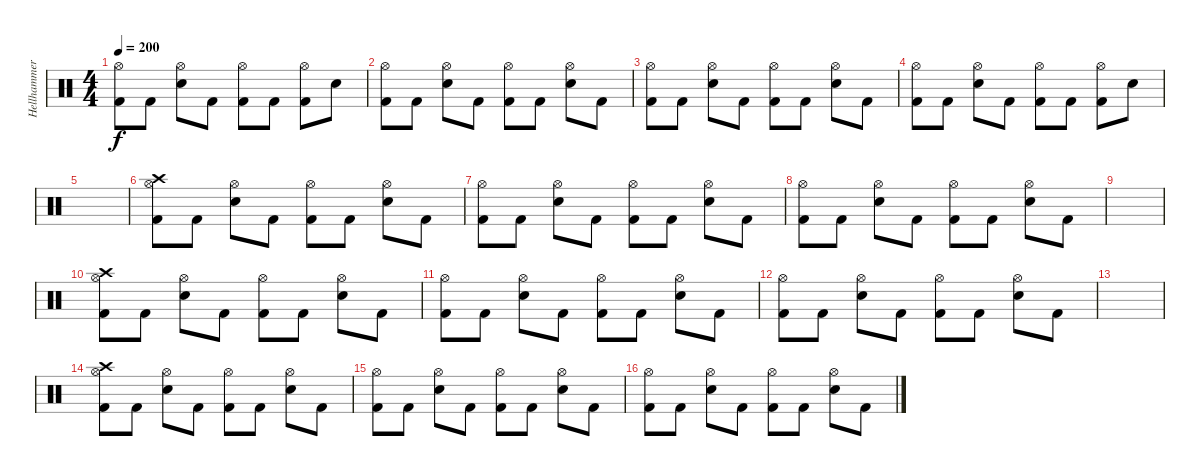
\track ("Hellhammer" "Hellhammer") {instrument percussion}
\staff {score}
\articulation defaults
\ts (4 4)
\tempo 200
\clef neutral
\ks c
("Hi-Hat (open)" "Kick (hit) 2").8{dy f} "Kick (hit) 2".8 ("Hi-Hat (open)" "Electric Snare (hit)").8 "Kick (hit) 2".8 ("Hi-Hat (open)" "Kick (hit) 2").8 "Kick (hit) 2".8 ("Hi-Hat (open)" "Kick (hit) 2").8 "Electric Snare (hit)".8 |
("Hi-Hat (open)" "Kick (hit) 2").8 "Kick (hit) 2".8 ("Hi-Hat (open)" "Electric Snare (hit)").8 "Kick (hit) 2".8 ("Hi-Hat (open)" "Kick (hit) 2").8 "Kick (hit) 2".8 ("Hi-Hat (open)" "Electric Snare (hit)").8 "Kick (hit) 2".8 |
("Hi-Hat (open)" "Kick (hit) 2").8 "Kick (hit) 2".8 ("Hi-Hat (open)" "Electric Snare (hit)").8 "Kick (hit) 2".8 ("Hi-Hat (open)" "Kick (hit) 2").8 "Kick (hit) 2".8 ("Hi-Hat (open)" "Electric Snare (hit)").8 "Kick (hit) 2".8 |
("Hi-Hat (open)" "Kick (hit) 2").8 "Kick (hit) 2".8 ("Hi-Hat (open)" "Electric Snare (hit)").8 "Kick (hit) 2".8 ("Hi-Hat (open)" "Kick (hit) 2").8 "Kick (hit) 2".8 ("Hi-Hat (open)" "Kick (hit) 2").8 "Electric Snare (hit)".8 |
|
("Crash high (hit)" "Hi-Hat (open)" "Kick (hit) 2").8 "Kick (hit) 2".8 ("Hi-Hat (open)" "Electric Snare (hit)").8 "Kick (hit) 2".8 ("Hi-Hat (open)" "Kick (hit) 2").8 "Kick (hit) 2".8 ("Hi-Hat (open)" "Electric Snare (hit)").8 "Kick (hit) 2".8 |
("Hi-Hat (open)" "Kick (hit) 2").8 "Kick (hit) 2".8 ("Hi-Hat (open)" "Electric Snare (hit)").8 "Kick (hit) 2".8 ("Hi-Hat (open)" "Kick (hit) 2").8 "Kick (hit) 2".8 ("Hi-Hat (open)" "Electric Snare (hit)").8 "Kick (hit) 2".8 |
("Hi-Hat (open)" "Kick (hit) 2").8 "Kick (hit) 2".8 ("Hi-Hat (open)" "Electric Snare (hit)").8 "Kick (hit) 2".8 ("Hi-Hat (open)" "Kick (hit) 2").8 "Kick (hit) 2".8 ("Hi-Hat (open)" "Electric Snare (hit)").8 "Kick (hit) 2".8 |
|
("Crash high (hit)" "Hi-Hat (open)" "Kick (hit) 2").8 "Kick (hit) 2".8 ("Hi-Hat (open)" "Electric Snare (hit)").8 "Kick (hit) 2".8 ("Hi-Hat (open)" "Kick (hit) 2").8 "Kick (hit) 2".8 ("Hi-Hat (open)" "Electric Snare (hit)").8 "Kick (hit) 2".8 |
("Hi-Hat (open)" "Kick (hit) 2").8 "Kick (hit) 2".8 ("Hi-Hat (open)" "Electric Snare (hit)").8 "Kick (hit) 2".8 ("Hi-Hat (open)" "Kick (hit) 2").8 "Kick (hit) 2".8 ("Hi-Hat (open)" "Electric Snare (hit)").8 "Kick (hit) 2".8 |
("Hi-Hat (open)" "Kick (hit) 2").8 "Kick (hit) 2".8 ("Hi-Hat (open)" "Electric Snare (hit)").8 "Kick (hit) 2".8 ("Hi-Hat (open)" "Kick (hit) 2").8 "Kick (hit) 2".8 ("Hi-Hat (open)" "Electric Snare (hit)").8 "Kick (hit) 2".8 |
|
("Crash high (hit)" "Hi-Hat (open)" "Kick (hit) 2").8 "Kick (hit) 2".8 ("Hi-Hat (open)" "Electric Snare (hit)").8 "Kick (hit) 2".8 ("Hi-Hat (open)" "Kick (hit) 2").8 "Kick (hit) 2".8 ("Hi-Hat (open)" "Electric Snare (hit)").8 "Kick (hit) 2".8 |
("Hi-Hat (open)" "Kick (hit) 2").8 "Kick (hit) 2".8 ("Hi-Hat (open)" "Electric Snare (hit)").8 "Kick (hit) 2".8 ("Hi-Hat (open)" "Kick (hit) 2").8 "Kick (hit) 2".8 ("Hi-Hat (open)" "Electric Snare (hit)").8 "Kick (hit) 2".8 |
("Hi-Hat (open)" "Kick (hit) 2").8 "Kick (hit) 2".8 ("Hi-Hat (open)" "Electric Snare (hit)").8 "Kick (hit) 2".8 ("Hi-Hat (open)" "Kick (hit) 2").8 "Kick (hit) 2".8 ("Hi-Hat (open)" "Electric Snare (hit)").8 "Kick (hit) 2".8
